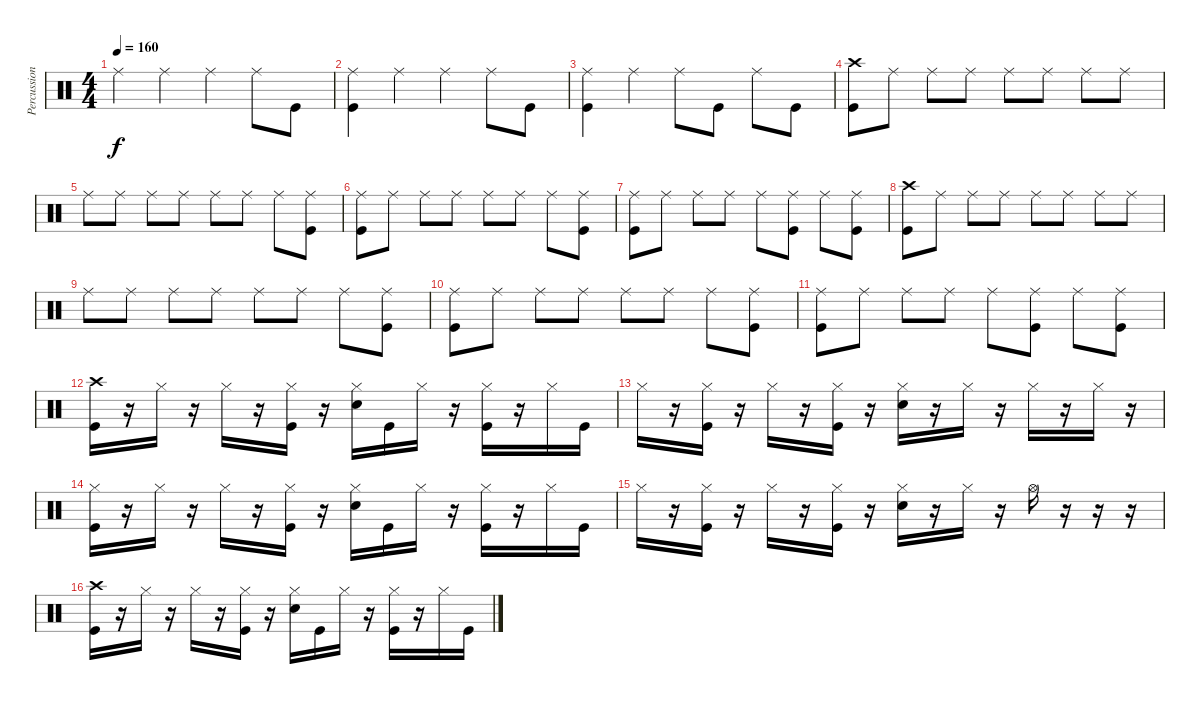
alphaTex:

\track ("Percussion" "Percussion") {instrument percussion}
\staff {score}
\articulation defaults
\ts (4 4)
\tempo 160
\clef neutral
\ks c "Ride (middle)".4{dy f} "Ride (middle)".4 "Ride (middle)".4 "Ride (middle)".8 "Kick (hit)".8
|
("Ride (middle)" "Kick (hit)").4 "Ride (middle)".4 "Ride (middle)".4 "Ride (middle)".8 "Kick (hit)".8 |
("Ride (middle)" "Kick (hit)").4 "Ride (middle)".4 "Ride (middle)".8 "Kick (hit)".8 "Ride (middle)".8 "Kick (hit)".8 |
("Kick (hit)" "Crash high (hit)").8 "Ride (middle)".8 "Ride (middle)".8 "Ride (middle)".8 "Ride (middle)".8 "Ride (middle)".8 "Ride (middle)".8 "Ride (middle)".8 |
"Ride (middle)".8 "Ride (middle)".8 "Ride (middle)".8 "Ride (middle)".8 "Ride (middle)".8 "Ride (middle)".8 "Ride (middle)".8 ("Ride (middle)" "Kick (hit)").8 |
("Ride (middle)" "Kick (hit)").8 "Ride (middle)".8 "Ride (middle)".8 "Ride (middle)".8 "Ride (middle)".8 "Ride (middle)".8 "Ride (middle)".8 ("Ride (middle)" "Kick (hit)").8 |
("Ride (middle)" "Kick (hit)").8 "Ride (middle)".8 "Ride (middle)".8 "Ride (middle)".8 "Ride (middle)".8 ("Ride (middle)" "Kick (hit)").8 "Ride (middle)".8 ("Ride (middle)" "Kick (hit)").8 |
("Kick (hit)" "Crash high (hit)").8 "Ride (middle)".8 "Ride (middle)".8 "Ride (middle)".8 "Ride (middle)".8 "Ride (middle)".8 "Ride (middle)".8 "Ride (middle)".8 |
"Ride (middle)".8 "Ride (middle)".8 "Ride (middle)".8 "Ride (middle)".8 "Ride (middle)".8 "Ride (middle)".8 "Ride (middle)".8 ("Ride (middle)" "Kick (hit)").8 |
("Ride (middle)" "Kick (hit)").8 "Ride (middle)".8 "Ride (middle)".8 "Ride (middle)".8 "Ride (middle)".8 "Ride (middle)".8 "Ride (middle)".8 ("Ride (middle)" "Kick (hit)").8 |
("Ride (middle)" "Kick (hit)").8 "Ride (middle)".8 "Ride (middle)".8 "Ride (middle)".8 "Ride (middle)".8 ("Ride (middle)" "Kick (hit)").8 "Ride (middle)".8 ("Ride (middle)" "Kick (hit)").8 |
("Kick (hit)" "Crash high (hit)").16 r.16 "Hi-Hat (closed)".16 r.16 "Hi-Hat (closed)".16 r.16 ("Hi-Hat (closed)" "Kick (hit)").16 r.16 ("Hi-Hat (closed)" "Snare (hit) 2").16 "Kick (hit)".16 "Hi-Hat (closed)".16 r.16 ("Hi-Hat (closed)" "Kick (hit)").16 r.16 "Hi-Hat (closed)".16 "Kick (hit)".16 |
"Hi-Hat (closed)".16 r.16 ("Hi-Hat (closed)" "Kick (hit)").16 r.16 "Hi-Hat (closed)".16 r.16 ("Hi-Hat (closed)" "Kick (hit)").16 r.16 ("Hi-Hat (closed)" "Snare (hit) 2").16 r.16 "Hi-Hat (closed)".16 r.16 "Hi-Hat (closed)".16 r.16 "Hi-Hat (closed)".16 r.16 |
("Kick (hit)" "Hi-Hat (closed)").16 r.16 "Hi-Hat (closed)".16 r.16 "Hi-Hat (closed)".16 r.16 ("Hi-Hat (closed)" "Kick (hit)").16 r.16 ("Hi-Hat (closed)" "Snare (hit) 2").16 "Kick (hit)".16 "Hi-Hat (closed)".16 r.16 ("Hi-Hat (closed)" "Kick (hit)").16 r.16 "Hi-Hat (closed)".16 "Kick (hit)".16 |
"Hi-Hat (closed)".16 r.16 ("Hi-Hat (closed)" "Kick (hit)").16 r.16 "Hi-Hat (closed)".16 r.16 ("Hi-Hat (closed)" "Kick (hit)").16 r.16 ("Hi-Hat (closed)" "Snare (hit) 2").16 r.16 "Hi-Hat (closed)".16 r.16 "Hi-Hat (open)".16 r.16 r.16 r.16 |
("Kick (hit)" "Crash high (hit)").16 r.16 "Hi-Hat (closed)".16 r.16 "Hi-Hat (closed)".16 r.16 ("Hi-Hat (closed)" "Kick (hit)").16 r.16 ("Hi-Hat (closed)" "Snare (hit) 2").16 "Kick (hit)".16 "Hi-Hat (closed)".16 r.16 ("Hi-Hat (closed)" "Kick (hit)").16 r.16 "Hi-Hat (closed)".16 "Kick (hit)".16
